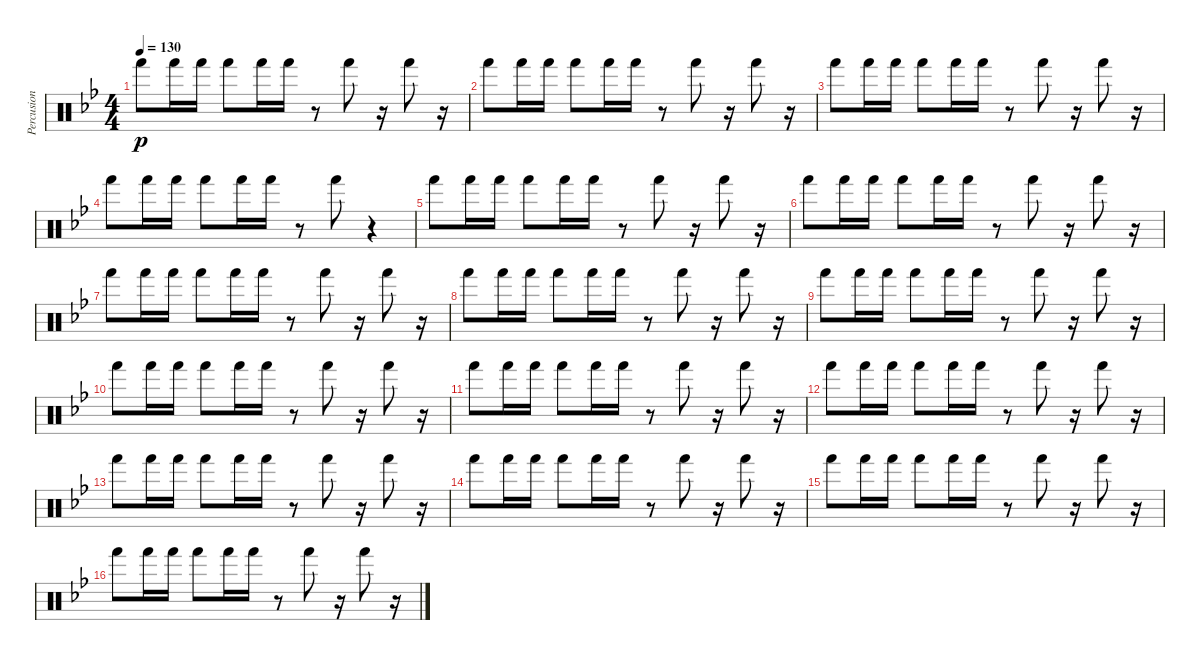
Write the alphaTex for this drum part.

\track ("Percusion III" "Percusion ") {instrument percussion}
\staff {score}
\articulation defaults
\ts (4 4)
\tempo 130
\clef neutral
\ks gminor "Hand (hit)".8{dy p} "Hand (hit)".16 "Hand (hit)".16 "Hand (hit)".8 "Hand (hit)".16 "Hand (hit)".16
r.8 "Hand (hit)".8 r.16 "Hand (hit)".8 r.16 |
"Hand (hit)".8 "Hand (hit)".16 "Hand (hit)".16 "Hand (hit)".8 "Hand (hit)".16 "Hand (hit)".16 r.8 "Hand (hit)".8 r.16 "Hand (hit)".8 r.16 |
"Hand (hit)".8 "Hand (hit)".16 "Hand (hit)".16 "Hand (hit)".8 "Hand (hit)".16 "Hand (hit)".16 r.8 "Hand (hit)".8 r.16 "Hand (hit)".8 r.16 |
"Hand (hit)".8 "Hand (hit)".16 "Hand (hit)".16 "Hand (hit)".8 "Hand (hit)".16 "Hand (hit)".16 r.8 "Hand (hit)".8 r.4 |
"Hand (hit)".8 "Hand (hit)".16 "Hand (hit)".16 "Hand (hit)".8 "Hand (hit)".16 "Hand (hit)".16 r.8 "Hand (hit)".8 r.16 "Hand (hit)".8 r.16 |
"Hand (hit)".8 "Hand (hit)".16 "Hand (hit)".16 "Hand (hit)".8 "Hand (hit)".16 "Hand (hit)".16 r.8 "Hand (hit)".8 r.16 "Hand (hit)".8 r.16 |
"Hand (hit)".8 "Hand (hit)".16 "Hand (hit)".16 "Hand (hit)".8 "Hand (hit)".16 "Hand (hit)".16 r.8 "Hand (hit)".8 r.16 "Hand (hit)".8 r.16 |
"Hand (hit)".8 "Hand (hit)".16 "Hand (hit)".16 "Hand (hit)".8 "Hand (hit)".16 "Hand (hit)".16 r.8 "Hand (hit)".8 r.16 "Hand (hit)".8 r.16 |
"Hand (hit)".8 "Hand (hit)".16 "Hand (hit)".16 "Hand (hit)".8 "Hand (hit)".16 "Hand (hit)".16 r.8 "Hand (hit)".8 r.16 "Hand (hit)".8 r.16 |
"Hand (hit)".8 "Hand (hit)".16 "Hand (hit)".16 "Hand (hit)".8 "Hand (hit)".16 "Hand (hit)".16 r.8 "Hand (hit)".8 r.16 "Hand (hit)".8 r.16 |
"Hand (hit)".8 "Hand (hit)".16 "Hand (hit)".16 "Hand (hit)".8 "Hand (hit)".16 "Hand (hit)".16 r.8 "Hand (hit)".8 r.16 "Hand (hit)".8 r.16 |
"Hand (hit)".8 "Hand (hit)".16 "Hand (hit)".16 "Hand (hit)".8 "Hand (hit)".16 "Hand (hit)".16 r.8 "Hand (hit)".8 r.16 "Hand (hit)".8 r.16 |
"Hand (hit)".8 "Hand (hit)".16 "Hand (hit)".16 "Hand (hit)".8 "Hand (hit)".16 "Hand (hit)".16 r.8 "Hand (hit)".8 r.16 "Hand (hit)".8 r.16 |
"Hand (hit)".8 "Hand (hit)".16 "Hand (hit)".16 "Hand (hit)".8 "Hand (hit)".16 "Hand (hit)".16 r.8 "Hand (hit)".8 r.16 "Hand (hit)".8 r.16 |
"Hand (hit)".8 "Hand (hit)".16 "Hand (hit)".16 "Hand (hit)".8 "Hand (hit)".16 "Hand (hit)".16 r.8 "Hand (hit)".8 r.16 "Hand (hit)".8 r.16 |
"Hand (hit)".8 "Hand (hit)".16 "Hand (hit)".16 "Hand (hit)".8 "Hand (hit)".16 "Hand (hit)".16 r.8 "Hand (hit)".8 r.16 "Hand (hit)".8 r.16
